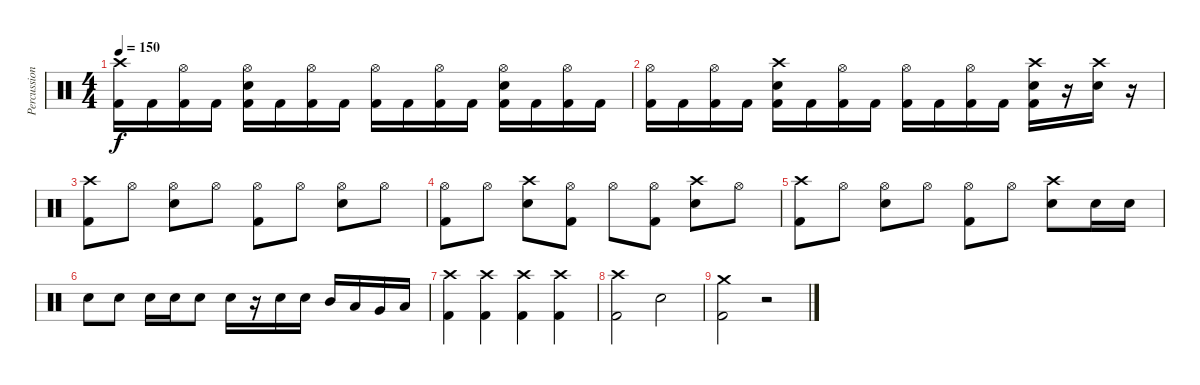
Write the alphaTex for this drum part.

\track ("Percussion" "Percussion") {instrument percussion}
\staff {score}
\articulation defaults
\ts (4 4)
\tempo 150
\clef neutral
\ks c
("Crash high (hit)" "Kick (hit) 2").16{dy f} "Kick (hit) 2".16 ("Hi-Hat (open)" "Kick (hit) 2").16 "Kick (hit) 2".16 ("Hi-Hat (open)" "Snare (hit) 2" "Kick (hit) 2").16 "Kick (hit) 2".16 ("Hi-Hat (open)" "Kick (hit) 2").16 "Kick (hit) 2".16 ("Hi-Hat (open)" "Kick (hit) 2").16 "Kick (hit) 2".16 ("Hi-Hat (open)" "Kick (hit) 2").16 "Kick (hit) 2".16 ("Hi-Hat (open)" "Snare (hit) 2" "Kick (hit) 2").16 "Kick (hit) 2".16 ("Hi-Hat (open)" "Kick (hit) 2").16 "Kick (hit) 2".16 |
("Hi-Hat (open)" "Kick (hit) 2").16 "Kick (hit) 2".16 ("Hi-Hat (open)" "Kick (hit) 2").16 "Kick (hit) 2".16 ("Crash high (hit)" "Snare (hit) 2" "Kick (hit) 2").16 "Kick (hit) 2".16 ("Hi-Hat (open)" "Kick (hit) 2").16 "Kick (hit) 2".16 ("Hi-Hat (open)" "Kick (hit) 2").16 "Kick (hit) 2".16 ("Hi-Hat (open)" "Kick (hit) 2").16 "Kick (hit) 2".16 ("Crash high (hit)" "Snare (hit) 2" "Kick (hit) 2").16 r.16 ("Crash high (hit)" "Snare (hit) 2").16 r.16 |
("Crash high (hit)" "Kick (hit) 2").8 "Hi-Hat (open)".8 ("Hi-Hat (open)" "Snare (hit) 2").8 "Hi-Hat (open)".8 ("Hi-Hat (open)" "Kick (hit) 2").8 "Hi-Hat (open)".8 ("Hi-Hat (open)" "Snare (hit) 2").8 "Hi-Hat (open)".8 |
("Hi-Hat (open)" "Kick (hit) 2").8 "Hi-Hat (open)".8 ("Crash high (hit)" "Snare (hit) 2").8 ("Hi-Hat (open)" "Kick (hit) 2").8 "Hi-Hat (open)".8 ("Hi-Hat (open)" "Kick (hit) 2").8 ("Crash high (hit)" "Snare (hit) 2").8 "Hi-Hat (open)".8 |
("Crash high (hit)" "Kick (hit) 2").8 "Hi-Hat (open)".8 ("Hi-Hat (open)" "Snare (hit) 2").8 "Hi-Hat (open)".8 ("Hi-Hat (open)" "Kick (hit) 2").8 "Hi-Hat (open)".8 ("Crash high (hit)" "Snare (hit) 2").8 "Snare (hit) 2".16 "Snare (hit) 2".16 |
"Snare (hit) 2".8 "Snare (hit) 2".8 "Snare (hit) 2".16 "Snare (hit) 2".16 "Snare (hit) 2".8 "Snare (hit) 2".16 r.16 "Snare (hit) 2".16 "Snare (hit) 2".16 "Mid Tom (hit)".16 "Low Tom (hit)".16 "Very Low Tom (hit)".16 "Low Floor Tom (hit)".16 |
("Crash high (hit)" "Kick (hit) 2").4 ("Crash high (hit)" "Kick (hit) 2").4 ("Crash high (hit)" "Kick (hit) 2").4 ("Crash high (hit)" "Kick (hit) 2").4 |
("Crash high (hit)" "Kick (hit) 2").2 "Snare (hit) 2".2 |
("Crash medium (hit)" "Kick (hit) 2").2 r.2
